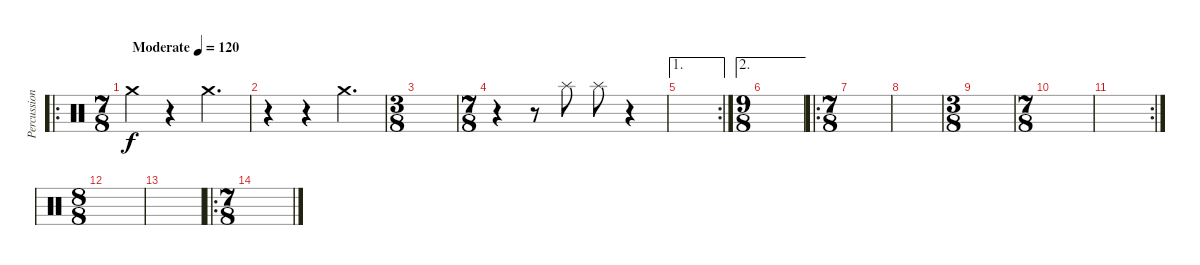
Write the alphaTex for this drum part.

\track ("Percussion" "Percussion") {instrument percussion}
\staff {score}
\articulation defaults
\ro
\ts (7 8)
\tempo (120 "Moderate")
\clef neutral
\ks c "Crash medium (hit)".4{dy f}
r.4 "Crash medium (hit)".4{d} |
r.4 r.4 "Crash medium (hit)".4{d} |
\ts (3 8)
|
\ts (7 8)
r.4 r.8 "Splash (hit)".8 "Splash (hit)".8 r.4 |
\ae 1
\rc 2
|
\ae 2
\ts (9 8)
|
\ro
\ts (7 8)
|
|
\ts (3 8)
|
\ts (7 8)
|
\rc 2
|
\ts (8 8)
|
|
\ro
\ts (7 8)
